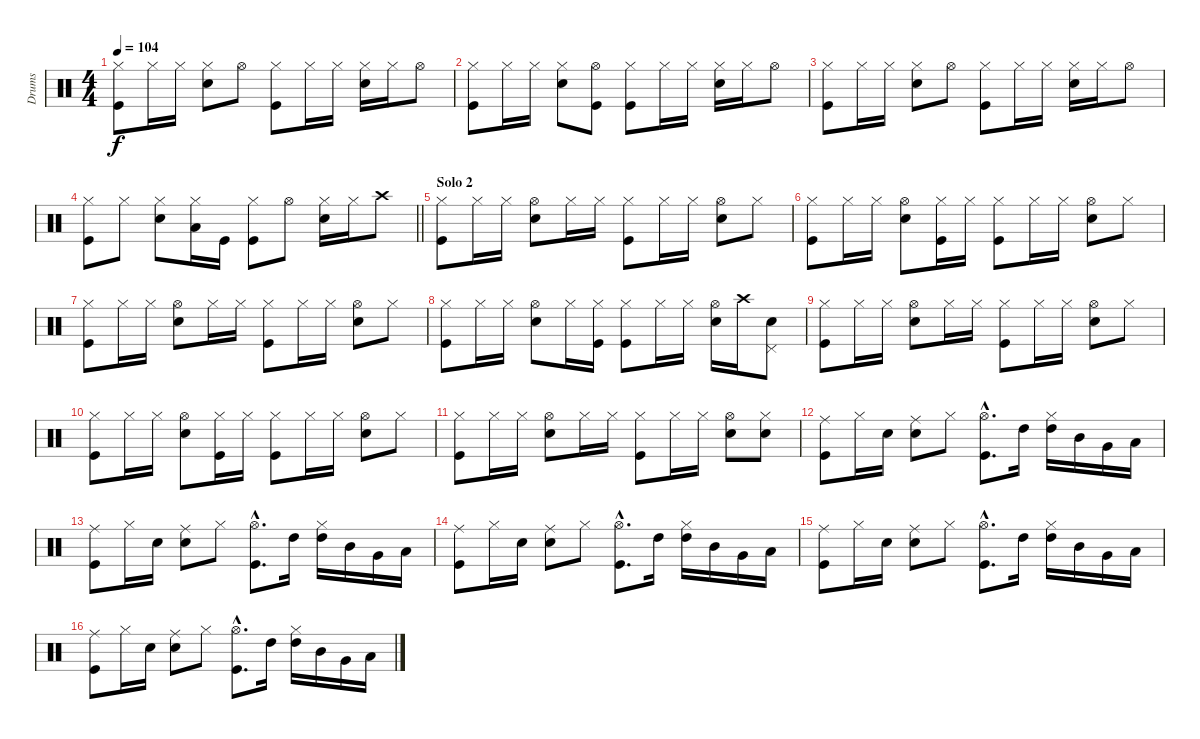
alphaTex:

\track ("Drums" "Drums") {instrument percussion}
\staff {score}
\articulation defaults
\ts (4 4)
\tempo 104
\clef neutral
\ks c
("Hi-Hat (closed)" "Kick (hit)").8{dy f} "Hi-Hat (closed)".16 "Hi-Hat (closed)".16 ("Hi-Hat (closed)" "Snare (hit) 2").8 "Hi-Hat (open)".8 ("Hi-Hat (closed)" "Kick (hit)").8 "Hi-Hat (closed)".16 "Hi-Hat (closed)".16 ("Hi-Hat (closed)" "Snare (hit) 2").16 "Hi-Hat (closed)".16 "Hi-Hat (open)".8 |
("Hi-Hat (closed)" "Kick (hit)").8 "Hi-Hat (closed)".16 "Hi-Hat (closed)".16 ("Hi-Hat (closed)" "Snare (hit) 2").8 ("Hi-Hat (open)" "Kick (hit)").8 ("Hi-Hat (closed)" "Kick (hit)").8 "Hi-Hat (closed)".16 "Hi-Hat (closed)".16 ("Hi-Hat (closed)" "Snare (hit) 2").16 "Hi-Hat (closed)".16 "Hi-Hat (open)".8 |
("Hi-Hat (closed)" "Kick (hit)").8 "Hi-Hat (closed)".16 "Hi-Hat (closed)".16 ("Hi-Hat (closed)" "Snare (hit) 2").8 "Hi-Hat (open)".8 ("Hi-Hat (closed)" "Kick (hit)").8 "Hi-Hat (closed)".16 "Hi-Hat (closed)".16 ("Hi-Hat (closed)" "Snare (hit) 2").16 "Hi-Hat (closed)".16 "Hi-Hat (open)".8 |
\barLineRight lightlight
("Hi-Hat (closed)" "Kick (hit)").8 "Hi-Hat (closed)".8 ("Hi-Hat (closed)" "Snare (hit) 2").8 ("Hi-Hat (closed)" "Low Floor Tom (hit)").16 "Kick (hit)".16 ("Hi-Hat (closed)" "Kick (hit)").8 "Hi-Hat (open)".8 ("Hi-Hat (closed)" "Snare (hit) 2").16 "Hi-Hat (closed)".16 "Crash high (hit)".8 |
\section ("" "Solo 2")
("Hi-Hat (closed)" "Kick (hit)").8 "Hi-Hat (closed)".16 "Hi-Hat (closed)".16 ("Hi-Hat (open)" "Snare (hit) 2").8 "Hi-Hat (closed)".16 "Hi-Hat (closed)".16 ("Hi-Hat (closed)" "Kick (hit)").8 "Hi-Hat (closed)".16 "Hi-Hat (closed)".16 ("Hi-Hat (open)" "Snare (hit) 2").8 "Hi-Hat (closed)".8 |
("Hi-Hat (closed)" "Kick (hit)").8 "Hi-Hat (closed)".16 "Hi-Hat (closed)".16 ("Hi-Hat (open)" "Snare (hit) 2").8 ("Hi-Hat (closed)" "Kick (hit)").16 "Hi-Hat (closed)".16 ("Hi-Hat (closed)" "Kick (hit)").8 "Hi-Hat (closed)".16 "Hi-Hat (closed)".16 ("Hi-Hat (open)" "Snare (hit) 2").8 "Hi-Hat (closed)".8 |
("Hi-Hat (closed)" "Kick (hit)").8 "Hi-Hat (closed)".16 "Hi-Hat (closed)".16 ("Hi-Hat (open)" "Snare (hit) 2").8 "Hi-Hat (closed)".16 "Hi-Hat (closed)".16 ("Hi-Hat (closed)" "Kick (hit)").8 "Hi-Hat (closed)".16 "Hi-Hat (closed)".16 ("Hi-Hat (open)" "Snare (hit) 2").8 "Hi-Hat (closed)".8 |
("Hi-Hat (closed)" "Kick (hit)").8 "Hi-Hat (closed)".16 "Hi-Hat (closed)".16 ("Hi-Hat (open)" "Snare (hit) 2").8 "Hi-Hat (closed)".16 ("Hi-Hat (closed)" "Kick (hit)").16 ("Hi-Hat (closed)" "Kick (hit)").8 "Hi-Hat (closed)".16 "Hi-Hat (closed)".16 ("Hi-Hat (open)" "Snare (hit) 2").16 "Crash high (hit)".16 ("Pedal Hi-Hat (hit)" "Snare (hit) 2").8 |
("Hi-Hat (closed)" "Kick (hit)").8 "Hi-Hat (closed)".16 "Hi-Hat (closed)".16 ("Hi-Hat (open)" "Snare (hit) 2").8 "Hi-Hat (closed)".16 "Hi-Hat (closed)".16 ("Hi-Hat (closed)" "Kick (hit)").8 "Hi-Hat (closed)".16 "Hi-Hat (closed)".16 ("Hi-Hat (open)" "Snare (hit) 2").8 "Hi-Hat (closed)".8 |
("Hi-Hat (closed)" "Kick (hit)").8 "Hi-Hat (closed)".16 "Hi-Hat (closed)".16 ("Hi-Hat (open)" "Snare (hit) 2").8 ("Hi-Hat (closed)" "Kick (hit)").16 "Hi-Hat (closed)".16 ("Hi-Hat (closed)" "Kick (hit)").8 "Hi-Hat (closed)".16 "Hi-Hat (closed)".16 ("Hi-Hat (open)" "Snare (hit) 2").8 "Hi-Hat (closed)".8 |
("Hi-Hat (closed)" "Kick (hit)").8 "Hi-Hat (closed)".16 "Hi-Hat (closed)".16 ("Hi-Hat (open)" "Snare (hit) 2").8 "Hi-Hat (closed)".16 "Hi-Hat (closed)".16 ("Hi-Hat (closed)" "Kick (hit)").8 "Hi-Hat (closed)".16 "Hi-Hat (closed)".16 ("Hi-Hat (open)" "Snare (hit) 2").8 ("Hi-Hat (closed)" "Snare (hit) 2").8 |
("Ride (middle)" "Kick (hit)").8 "Hi-Hat (closed)".16 "Snare (hit) 2".16 ("Ride (middle)" "Snare (hit) 2").8 "Hi-Hat (closed)".8 ("Hi-Hat (open)"{hac} "Kick (hit)"{hac}).8{d} "High Tom (hit)".16 ("Hi-Hat (closed)" "High Tom (hit)").16 "Mid Tom (hit)".16 "Very Low Tom (hit)".16 "Low Floor Tom (hit)".16 |
("Ride (middle)" "Kick (hit)").8 "Hi-Hat (closed)".16 "Snare (hit) 2".16 ("Ride (middle)" "Snare (hit) 2").8 "Hi-Hat (closed)".8 ("Hi-Hat (open)"{hac} "Kick (hit)"{hac}).8{d} "High Tom (hit)".16 ("Hi-Hat (closed)" "High Tom (hit)").16 "Mid Tom (hit)".16 "Very Low Tom (hit)".16 "Low Floor Tom (hit)".16 |
("Ride (middle)" "Kick (hit)").8 "Hi-Hat (closed)".16 "Snare (hit) 2".16 ("Ride (middle)" "Snare (hit) 2").8 "Hi-Hat (closed)".8 ("Hi-Hat (open)"{hac} "Kick (hit)"{hac}).8{d} "High Tom (hit)".16 ("Hi-Hat (closed)" "High Tom (hit)").16 "Mid Tom (hit)".16 "Very Low Tom (hit)".16 "Low Floor Tom (hit)".16 |
("Ride (middle)" "Kick (hit)").8 "Hi-Hat (closed)".16 "Snare (hit) 2".16 ("Ride (middle)" "Snare (hit) 2").8 "Hi-Hat (closed)".8 ("Hi-Hat (open)"{hac} "Kick (hit)"{hac}).8{d} "High Tom (hit)".16 ("Hi-Hat (closed)" "High Tom (hit)").16 "Mid Tom (hit)".16 "Very Low Tom (hit)".16 "Low Floor Tom (hit)".16 |
("Ride (middle)" "Kick (hit)").8 "Hi-Hat (closed)".16 "Snare (hit) 2".16 ("Ride (middle)" "Snare (hit) 2").8 "Hi-Hat (closed)".8 ("Hi-Hat (open)"{hac} "Kick (hit)"{hac}).8{d} "High Tom (hit)".16 ("Hi-Hat (closed)" "High Tom (hit)").16 "Mid Tom (hit)".16 "Very Low Tom (hit)".16 "Low Floor Tom (hit)".16
